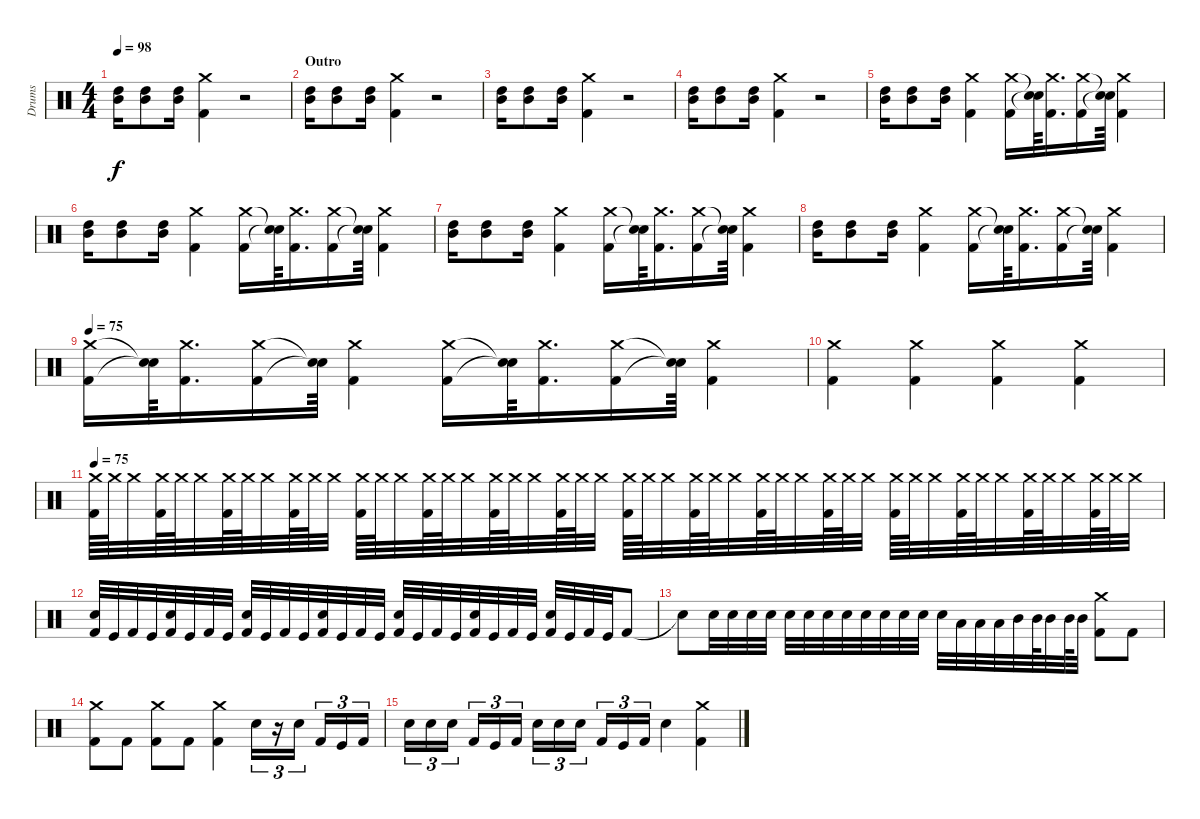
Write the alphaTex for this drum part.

\track ("Drums" "Drums") {instrument percussion}
\staff {score}
\articulation defaults
\ts (4 4)
\tempo 98
\clef neutral
\ks c
("Mid Tom (hit)" "High Tom (hit)").16{dy f} ("High Tom (hit)" "Mid Tom (hit)").8 ("High Tom (hit)" "Mid Tom (hit)").16 ("Crash medium (hit)" "Kick (hit) 2").4 r.2 |
\section ("" "Outro")
("Mid Tom (hit)" "High Tom (hit)").16 ("High Tom (hit)" "Mid Tom (hit)").8 ("High Tom (hit)" "Mid Tom (hit)").16 ("Crash medium (hit)" "Kick (hit) 2").4 r.2 |
("Mid Tom (hit)" "High Tom (hit)").16 ("High Tom (hit)" "Mid Tom (hit)").8 ("High Tom (hit)" "Mid Tom (hit)").16 ("Crash medium (hit)" "Kick (hit) 2").4 r.2 |
("Mid Tom (hit)" "High Tom (hit)").16 ("High Tom (hit)" "Mid Tom (hit)").8 ("High Tom (hit)" "Mid Tom (hit)").16 ("Crash medium (hit)" "Kick (hit) 2").4 r.2 |
("Mid Tom (hit)" "High Tom (hit)").16 ("High Tom (hit)" "Mid Tom (hit)").8 ("High Tom (hit)" "Mid Tom (hit)").16 ("Crash medium (hit)" "Kick (hit) 2").4 ("Kick (hit) 2" "Crash medium (hit)").16 ("Snare (hit)"{t} "Snare (hit)"{t}).64 ("Kick (hit) 2" "Crash medium (hit)").16{d} ("Kick (hit) 2" "Crash medium (hit)").16 ("Snare (hit)"{t} "Snare (hit)"{t}).64 ("Kick (hit) 2" "Crash medium (hit)").4 |
("Mid Tom (hit)" "High Tom (hit)").16 ("High Tom (hit)" "Mid Tom (hit)").8 ("High Tom (hit)" "Mid Tom (hit)").16 ("Crash medium (hit)" "Kick (hit) 2").4 ("Kick (hit) 2" "Crash medium (hit)").16 ("Snare (hit)"{t} "Snare (hit)"{t}).64 ("Kick (hit) 2" "Crash medium (hit)").16{d} ("Kick (hit) 2" "Crash medium (hit)").16 ("Snare (hit)"{t} "Snare (hit)"{t}).64 ("Kick (hit) 2" "Crash medium (hit)").4 |
("Mid Tom (hit)" "High Tom (hit)").16 ("High Tom (hit)" "Mid Tom (hit)").8 ("High Tom (hit)" "Mid Tom (hit)").16 ("Crash medium (hit)" "Kick (hit) 2").4 ("Kick (hit) 2" "Crash medium (hit)").16 ("Snare (hit)"{t} "Snare (hit)"{t}).64 ("Kick (hit) 2" "Crash medium (hit)").16{d} ("Kick (hit) 2" "Crash medium (hit)").16 ("Snare (hit)"{t} "Snare (hit)"{t}).64 ("Kick (hit) 2" "Crash medium (hit)").4 |
("Mid Tom (hit)" "High Tom (hit)").16 ("High Tom (hit)" "Mid Tom (hit)").8 ("High Tom (hit)" "Mid Tom (hit)").16 ("Crash medium (hit)" "Kick (hit) 2").4 ("Kick (hit) 2" "Crash medium (hit)").16 ("Snare (hit)"{t} "Snare (hit)"{t}).64 ("Kick (hit) 2" "Crash medium (hit)").16{d} ("Kick (hit) 2" "Crash medium (hit)").16 ("Snare (hit)"{t} "Snare (hit)"{t}).64 ("Kick (hit) 2" "Crash medium (hit)").4 |
\tempo 75
("Kick (hit) 2" "Crash medium (hit)").16 ("Snare (hit)"{t} "Snare (hit)"{t}).64 ("Kick (hit) 2" "Crash medium (hit)").16{d} ("Kick (hit) 2" "Crash medium (hit)").16 ("Snare (hit)"{t} "Snare (hit)"{t}).64 ("Kick (hit) 2" "Crash medium (hit)").4 ("Kick (hit) 2" "Crash medium (hit)").16 ("Snare (hit)"{t} "Snare (hit)"{t}).64 ("Kick (hit) 2" "Crash medium (hit)").16{d} ("Kick (hit) 2" "Crash medium (hit)").16 ("Snare (hit)"{t} "Snare (hit)"{t}).64 ("Kick (hit) 2" "Crash medium (hit)").4 |
("Kick (hit) 2" "Crash medium (hit)").4 ("Kick (hit) 2" "Crash medium (hit)").4 ("Kick (hit) 2" "Crash medium (hit)").4 ("Kick (hit) 2" "Crash medium (hit)").4 |
\tempo 98
\tempo 75
("Crash medium (hit)" "Kick (hit) 2").64 "Crash medium (hit)".64 "Crash medium (hit)".32 ("Crash medium (hit)" "Kick (hit) 2").64 "Crash medium (hit)".64 "Crash medium (hit)".32 ("Crash medium (hit)" "Kick (hit) 2").64 "Crash medium (hit)".64 "Crash medium (hit)".32 ("Crash medium (hit)" "Kick (hit) 2").64 "Crash medium (hit)".64 "Crash medium (hit)".32 ("Crash medium (hit)" "Kick (hit) 2").64 "Crash medium (hit)".64 "Crash medium (hit)".32 ("Crash medium (hit)" "Kick (hit) 2").64 "Crash medium (hit)".64 "Crash medium (hit)".32 ("Crash medium (hit)" "Kick (hit) 2").64 "Crash medium (hit)".64 "Crash medium (hit)".32 ("Crash medium (hit)" "Kick (hit) 2").64 "Crash medium (hit)".64 "Crash medium (hit)".32 ("Crash medium (hit)" "Kick (hit) 2").64 "Crash medium (hit)".64 "Crash medium (hit)".32 ("Crash medium (hit)" "Kick (hit) 2").64 "Crash medium (hit)".64 "Crash medium (hit)".32 ("Crash medium (hit)" "Kick (hit) 2").64 "Crash medium (hit)".64 "Crash medium (hit)".32 ("Crash medium (hit)" "Kick (hit) 2").64 "Crash medium (hit)".64 "Crash medium (hit)".32 ("Crash medium (hit)" "Kick (hit) 2").64 "Crash medium (hit)".64 "Crash medium (hit)".32 ("Crash medium (hit)" "Kick (hit) 2").64 "Crash medium (hit)".64 "Crash medium (hit)".32 ("Crash medium (hit)" "Kick (hit) 2").64 "Crash medium (hit)".64 "Crash medium (hit)".32 ("Crash medium (hit)" "Kick (hit) 2").64 "Crash medium (hit)".64 "Crash medium (hit)".32 |
("Snare (hit) 2" "Kick (hit) 2").32 "Kick (hit)".32 "Kick (hit) 2".32 "Kick (hit)".32 ("Snare (hit) 2" "Kick (hit) 2").32 "Kick (hit)".32 "Kick (hit) 2".32 "Kick (hit)".32 ("Snare (hit) 2" "Kick (hit) 2").32 "Kick (hit)".32 "Kick (hit) 2".32 "Kick (hit)".32 ("Snare (hit) 2" "Kick (hit) 2").32 "Kick (hit)".32 "Kick (hit) 2".32 "Kick (hit)".32 ("Snare (hit) 2" "Kick (hit) 2").32 "Kick (hit)".32 "Kick (hit) 2".32 "Kick (hit)".32 ("Snare (hit) 2" "Kick (hit) 2").32 "Kick (hit)".32 "Kick (hit) 2".32 "Kick (hit)".32 ("Kick (hit) 2" "Snare (hit) 2").32 "Kick (hit)".32 "Kick (hit) 2".32 "Kick (hit)".32 "Kick (hit) 2".8 |
"Snare (hit)"{t}.8 "Snare (hit) 2".32 "Snare (hit) 2".32 "Snare (hit) 2".32 "Snare (hit) 2".32 "Snare (hit) 2".32 "Snare (hit) 2".32 "Snare (hit) 2".32 "Snare (hit) 2".32 "Snare (hit) 2".32 "Snare (hit) 2".32 "Snare (hit) 2".32 "Snare (hit) 2".32 "Snare (hit) 2".32 "Low Tom (hit)".32 "Low Tom (hit)".32 "Low Tom (hit)".32 "Mid Tom (hit)".32 "Mid Tom (hit)".64 "Mid Tom (hit)".32 "Mid Tom (hit)".64 "Mid Tom (hit)".32 ("Kick (hit) 2" "Crash medium (hit)").8 "Kick (hit) 2".8 |
("Kick (hit) 2" "Crash medium (hit)").8 "Kick (hit) 2".8 ("Kick (hit) 2" "Crash medium (hit)").8 "Kick (hit) 2".8 ("Kick (hit) 2" "Crash medium (hit)").4 "Snare (hit) 2".16{tu (3 2)} r.16{tu (3 2)} "Snare (hit) 2".16{tu (3 2)} "Kick (hit) 2".16{tu (3 2)} "Kick (hit)".16{tu (3 2)} "Kick (hit) 2".16{tu (3 2)} |
"Snare (hit) 2".16{tu (3 2)} "Snare (hit) 2".16{tu (3 2)} "Snare (hit) 2".16{tu (3 2)} "Kick (hit) 2".16{tu (3 2)} "Kick (hit)".16{tu (3 2)} "Kick (hit) 2".16{tu (3 2)} "Snare (hit) 2".16{tu (3 2)} "Snare (hit) 2".16{tu (3 2)} "Snare (hit) 2".16{tu (3 2)} "Kick (hit) 2".16{tu (3 2)} "Kick (hit)".16{tu (3 2)} "Kick (hit) 2".16{tu (3 2)} "Snare (hit) 2".4 ("Crash medium (hit)" "Kick (hit) 2").4
